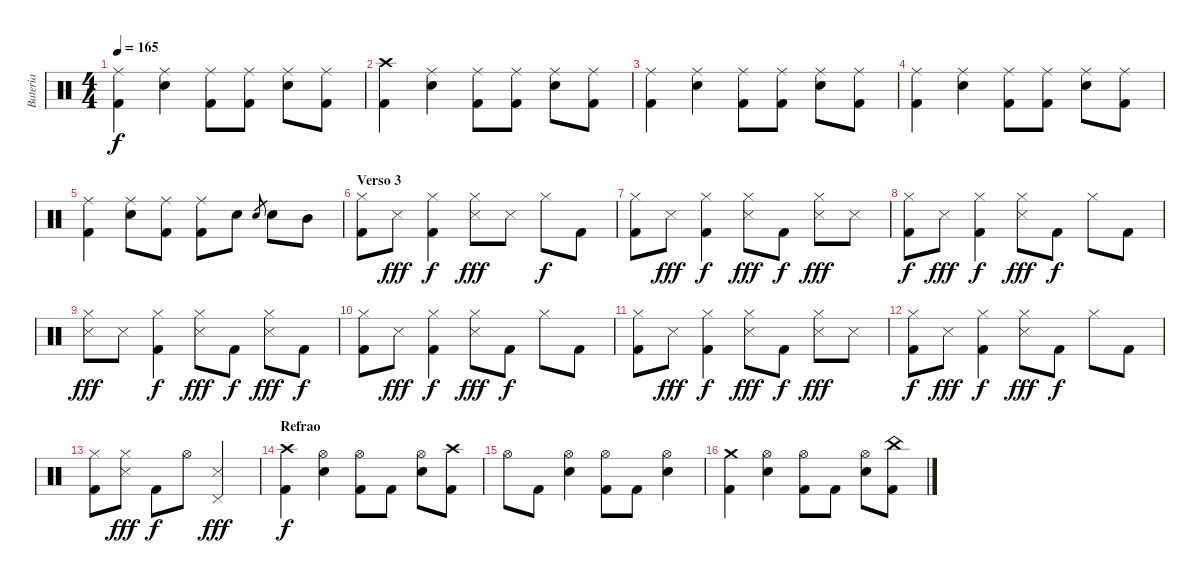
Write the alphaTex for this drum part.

\track ("Bateria" "Bateria") {instrument percussion}
\staff {score}
\articulation defaults
\ts (4 4)
\tempo 165
\clef neutral
\ks c
("Ride (middle)" "Kick (hit) 2").4{dy f} ("Ride (middle)" "Electric Snare (hit)").4 ("Ride (middle)" "Kick (hit) 2").8 ("Ride (middle)" "Kick (hit) 2").8 ("Ride (middle)" "Electric Snare (hit)").8 ("Ride (middle)" "Kick (hit) 2").8 |
("Crash high (hit)" "Kick (hit) 2").4 ("Ride (middle)" "Electric Snare (hit)").4 ("Ride (middle)" "Kick (hit) 2").8 ("Ride (middle)" "Kick (hit) 2").8 ("Ride (middle)" "Electric Snare (hit)").8 ("Ride (middle)" "Kick (hit) 2").8 |
("Ride (middle)" "Kick (hit) 2").4 ("Ride (middle)" "Electric Snare (hit)").4 ("Ride (middle)" "Kick (hit) 2").8 ("Ride (middle)" "Kick (hit) 2").8 ("Ride (middle)" "Electric Snare (hit)").8 ("Ride (middle)" "Kick (hit) 2").8 |
("Ride (middle)" "Kick (hit) 2").4 ("Ride (middle)" "Electric Snare (hit)").4 ("Ride (middle)" "Kick (hit) 2").8 ("Ride (middle)" "Kick (hit) 2").8 ("Ride (middle)" "Electric Snare (hit)").8 ("Ride (middle)" "Kick (hit) 2").8 |
("Ride (middle)" "Kick (hit) 2").4 ("Ride (middle)" "Electric Snare (hit)").8 ("Ride (middle)" "Kick (hit) 2").8 ("Ride (middle)" "Kick (hit) 2").8 "Electric Snare (hit)".8 "Electric Snare (hit)".8{gr} "Electric Snare (hit)".8 "Mid Tom (hit)".8 |
\section ("" "Verso 3")
("Hi-Hat (closed)" "Kick (hit) 2").8 "Snare (side stick) 3".8{dy fff} ("Hi-Hat (closed)" "Kick (hit) 2").4{dy f} ("Hi-Hat (closed)" "Snare (side stick) 3").8{dy fff} "Snare (side stick) 3".8 "Hi-Hat (closed)".8{dy f} "Kick (hit) 2".8 |
("Hi-Hat (closed)" "Kick (hit) 2").8 "Snare (side stick) 3".8{dy fff} ("Hi-Hat (closed)" "Kick (hit) 2").4{dy f} ("Hi-Hat (closed)" "Snare (side stick) 3").8{dy fff} "Kick (hit) 2".8{dy f} ("Hi-Hat (closed)" "Snare (side stick) 3").8{dy fff} "Snare (side stick) 3".8 |
("Hi-Hat (closed)" "Kick (hit) 2").8{dy f} "Snare (side stick) 3".8{dy fff} ("Hi-Hat (closed)" "Kick (hit) 2").4{dy f} ("Hi-Hat (closed)" "Snare (side stick) 3").8{dy fff} "Kick (hit) 2".8{dy f} "Hi-Hat (closed)".8 "Kick (hit) 2".8 |
("Hi-Hat (closed)" "Snare (side stick) 3").8{dy fff} "Snare (side stick) 3".8 ("Hi-Hat (closed)" "Kick (hit) 2").4{dy f} ("Hi-Hat (closed)" "Snare (side stick) 3").8{dy fff} "Kick (hit) 2".8{dy f} ("Hi-Hat (closed)" "Snare (side stick) 3").8{dy fff} "Kick (hit) 2".8{dy f} |
("Hi-Hat (closed)" "Kick (hit) 2").8 "Snare (side stick) 3".8{dy fff} ("Hi-Hat (closed)" "Kick (hit) 2").4{dy f} ("Hi-Hat (closed)" "Snare (side stick) 3").8{dy fff} "Kick (hit) 2".8{dy f} "Hi-Hat (closed)".8 "Kick (hit) 2".8 |
("Hi-Hat (closed)" "Kick (hit) 2").8 "Snare (side stick) 3".8{dy fff} ("Hi-Hat (closed)" "Kick (hit) 2").4{dy f} ("Hi-Hat (closed)" "Snare (side stick) 3").8{dy fff} "Kick (hit) 2".8{dy f} ("Hi-Hat (closed)" "Snare (side stick) 3").8{dy fff} "Snare (side stick) 3".8 |
("Hi-Hat (closed)" "Kick (hit) 2").8{dy f} "Snare (side stick) 3".8{dy fff} ("Hi-Hat (closed)" "Kick (hit) 2").4{dy f} ("Hi-Hat (closed)" "Snare (side stick) 3").8{dy fff} "Kick (hit) 2".8{dy f} "Hi-Hat (closed)".8 "Kick (hit) 2".8 |
("Hi-Hat (closed)" "Kick (hit) 2").8 ("Hi-Hat (closed)" "Snare (side stick) 3").8{dy fff} "Kick (hit) 2".8{dy f} "Hi-Hat (open)".8 ("Pedal Hi-Hat (hit)" "Snare (side stick) 3").2{dy fff} |
\section ("" "Refrao")
("Crash high (hit)" "Kick (hit) 2").4{dy f} ("Hi-Hat (open)" "Electric Snare (hit)").4 ("Hi-Hat (open)" "Kick (hit) 2").8 "Kick (hit) 2".8 ("Hi-Hat (open)" "Electric Snare (hit)").8 ("Crash high (hit)" "Kick (hit) 2").8 |
"Hi-Hat (open)".8 "Kick (hit) 2".8 ("Hi-Hat (open)" "Electric Snare (hit)").4 ("Hi-Hat (open)" "Kick (hit) 2").8 "Kick (hit) 2".8 ("Hi-Hat (open)" "Electric Snare (hit)").4 |
("Crash medium (hit)" "Kick (hit) 2").4 ("Hi-Hat (open)" "Electric Snare (hit)").4 ("Hi-Hat (open)" "Kick (hit) 2").8 "Kick (hit) 2".8 ("Hi-Hat (open)" "Electric Snare (hit)").8 ("China (hit)" "Kick (hit) 2").8
